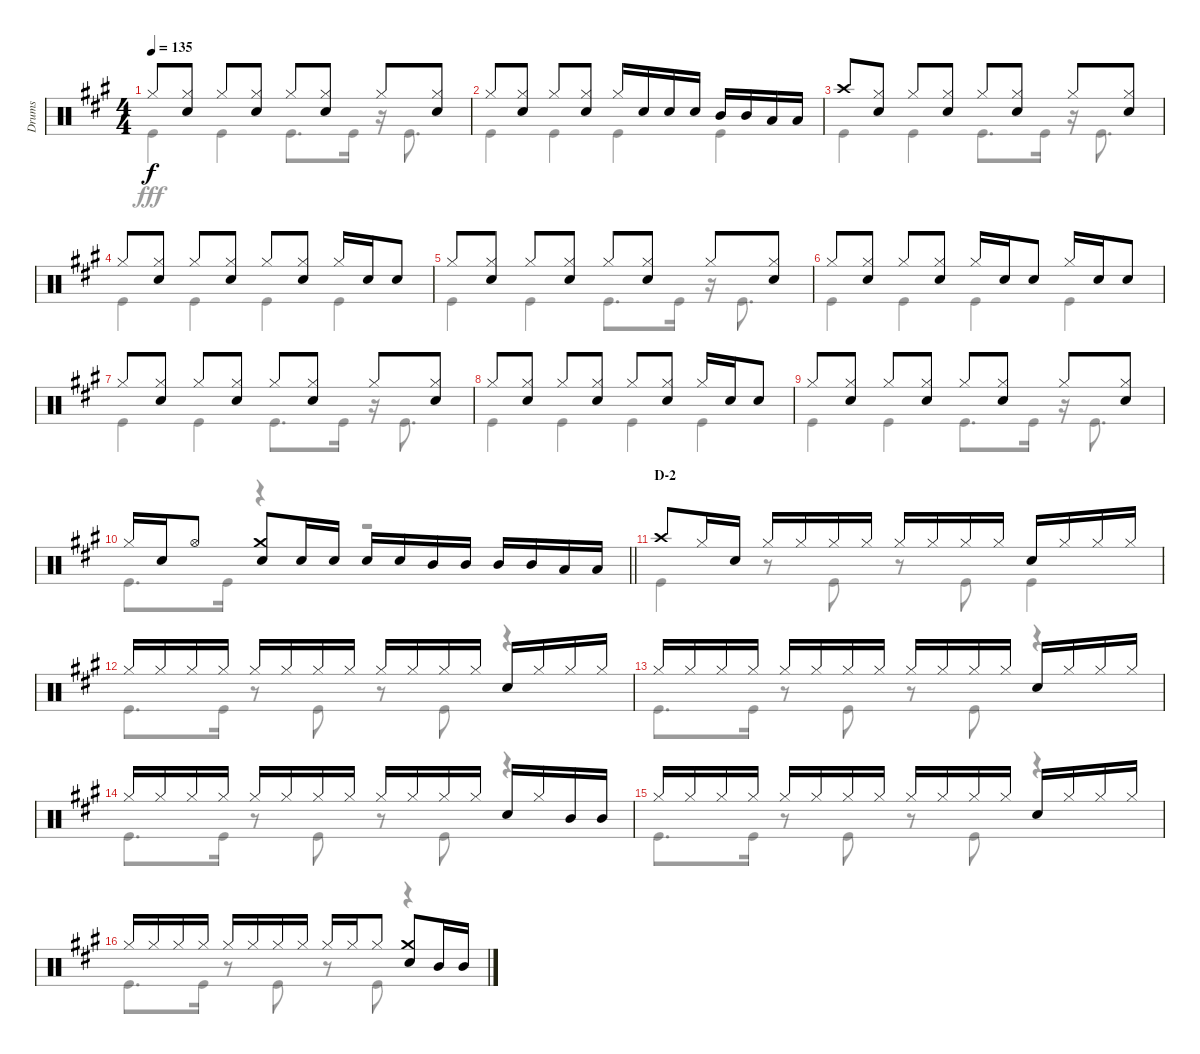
\track ("Drums" "Drums") {instrument percussion}
\staff {score}
\articulation defaults
\voice
\ts (4 4)
\tempo 135
\clef neutral
\ks a "Hi-Hat (closed)".8{dy f}
("Hi-Hat (closed)" "Snare (hit) 2").8 "Hi-Hat (closed)".8 ("Hi-Hat (closed)" "Snare (hit) 2").8 "Hi-Hat (closed)".8 ("Hi-Hat (closed)" "Snare (hit) 2").8 "Hi-Hat (closed)".8 ("Hi-Hat (closed)" "Snare (hit) 2").8 |
"Hi-Hat (closed)".8 ("Hi-Hat (closed)" "Snare (hit) 2").8 "Hi-Hat (closed)".8 ("Hi-Hat (closed)" "Snare (hit) 2").8 "Hi-Hat (closed)".16 "Snare (hit) 2".16 "Snare (hit) 2".16 "Snare (hit) 2".16 "Mid Tom (hit)".16 "Mid Tom (hit)".16 "Low Tom (hit)".16 "Low Tom (hit)".16 |
"Crash high (hit)".8 ("Hi-Hat (closed)" "Snare (hit) 2").8 "Hi-Hat (closed)".8 ("Hi-Hat (closed)" "Snare (hit) 2").8 "Hi-Hat (closed)".8 ("Hi-Hat (closed)" "Snare (hit) 2").8 "Hi-Hat (closed)".8 ("Hi-Hat (closed)" "Snare (hit) 2").8 |
"Hi-Hat (closed)".8 ("Hi-Hat (closed)" "Snare (hit) 2").8 "Hi-Hat (closed)".8 ("Hi-Hat (closed)" "Snare (hit) 2").8 "Hi-Hat (closed)".8 ("Hi-Hat (closed)" "Snare (hit) 2").8 "Hi-Hat (closed)".16 "Snare (hit) 2".16 "Snare (hit) 2".8 |
"Hi-Hat (closed)".8 ("Hi-Hat (closed)" "Snare (hit) 2").8 "Hi-Hat (closed)".8 ("Hi-Hat (closed)" "Snare (hit) 2").8 "Hi-Hat (closed)".8 ("Hi-Hat (closed)" "Snare (hit) 2").8 "Hi-Hat (closed)".8 ("Hi-Hat (closed)" "Snare (hit) 2").8 |
"Hi-Hat (closed)".8 ("Hi-Hat (closed)" "Snare (hit) 2").8 "Hi-Hat (closed)".8 ("Hi-Hat (closed)" "Snare (hit) 2").8 "Hi-Hat (closed)".16 "Snare (hit) 2".16 "Snare (hit) 2".8 "Hi-Hat (closed)".16 "Snare (hit) 2".16 "Snare (hit) 2".8 |
"Hi-Hat (closed)".8 ("Hi-Hat (closed)" "Snare (hit) 2").8 "Hi-Hat (closed)".8 ("Hi-Hat (closed)" "Snare (hit) 2").8 "Hi-Hat (closed)".8 ("Hi-Hat (closed)" "Snare (hit) 2").8 "Hi-Hat (closed)".8 ("Hi-Hat (closed)" "Snare (hit) 2").8 |
"Hi-Hat (closed)".8 ("Hi-Hat (closed)" "Snare (hit) 2").8 "Hi-Hat (closed)".8 ("Hi-Hat (closed)" "Snare (hit) 2").8 "Hi-Hat (closed)".8 ("Hi-Hat (closed)" "Snare (hit) 2").8 "Hi-Hat (closed)".16 "Snare (hit) 2".16 "Snare (hit) 2".8 |
"Hi-Hat (closed)".8 ("Hi-Hat (closed)" "Snare (hit) 2").8 "Hi-Hat (closed)".8 ("Hi-Hat (closed)" "Snare (hit) 2").8 "Hi-Hat (closed)".8 ("Hi-Hat (closed)" "Snare (hit) 2").8 "Hi-Hat (closed)".8 ("Hi-Hat (closed)" "Snare (hit) 2").8 |
\barLineRight lightlight "Hi-Hat (closed)".16 "Snare (hit) 2".16 "Hi-Hat (open)".8
("Crash medium (hit)" "Snare (hit) 2").8 "Snare (hit) 2".16 "Snare (hit) 2".16 "Snare (hit) 2".16 "Snare (hit) 2".16 "Mid Tom (hit)".16 "Mid Tom (hit)".16 "Mid Tom (hit)".16 "Mid Tom (hit)".16 "Low Tom (hit)".16 "Low Tom (hit)".16 |
\section ("" "D-2")
"Crash high (hit)".8 "Hi-Hat (closed)".16 "Snare (hit) 2".16 "Hi-Hat (closed)".16 "Hi-Hat (closed)".16 "Hi-Hat (closed)".16 "Hi-Hat (closed)".16 "Hi-Hat (closed)".16 "Hi-Hat (closed)".16 "Hi-Hat (closed)".16 "Hi-Hat (closed)".16 "Snare (hit) 2".16 "Hi-Hat (closed)".16 "Hi-Hat (closed)".16 "Hi-Hat (closed)".16 |
"Hi-Hat (closed)".16 "Hi-Hat (closed)".16 "Hi-Hat (closed)".16 "Hi-Hat (closed)".16 "Hi-Hat (closed)".16 "Hi-Hat (closed)".16 "Hi-Hat (closed)".16 "Hi-Hat (closed)".16 "Hi-Hat (closed)".16 "Hi-Hat (closed)".16 "Hi-Hat (closed)".16 "Hi-Hat (closed)".16 "Snare (hit) 2".16 "Hi-Hat (closed)".16 "Hi-Hat (closed)".16 "Hi-Hat (closed)".16 |
"Hi-Hat (closed)".16 "Hi-Hat (closed)".16 "Hi-Hat (closed)".16 "Hi-Hat (closed)".16 "Hi-Hat (closed)".16 "Hi-Hat (closed)".16 "Hi-Hat (closed)".16 "Hi-Hat (closed)".16 "Hi-Hat (closed)".16 "Hi-Hat (closed)".16 "Hi-Hat (closed)".16 "Hi-Hat (closed)".16 "Snare (hit) 2".16 "Hi-Hat (closed)".16 "Hi-Hat (closed)".16 "Hi-Hat (closed)".16 |
"Hi-Hat (closed)".16 "Hi-Hat (closed)".16 "Hi-Hat (closed)".16 "Hi-Hat (closed)".16 "Hi-Hat (closed)".16 "Hi-Hat (closed)".16 "Hi-Hat (closed)".16 "Hi-Hat (closed)".16 "Hi-Hat (closed)".16 "Hi-Hat (closed)".16 "Hi-Hat (closed)".16 "Hi-Hat (closed)".16 "Snare (hit) 2".16 "Hi-Hat (closed)".16 "Mid Tom (hit)".16 "Mid Tom (hit)".16 |
"Hi-Hat (closed)".16 "Hi-Hat (closed)".16 "Hi-Hat (closed)".16 "Hi-Hat (closed)".16 "Hi-Hat (closed)".16 "Hi-Hat (closed)".16 "Hi-Hat (closed)".16 "Hi-Hat (closed)".16 "Hi-Hat (closed)".16 "Hi-Hat (closed)".16 "Hi-Hat (closed)".16 "Hi-Hat (closed)".16 "Snare (hit) 2".16 "Hi-Hat (closed)".16 "Hi-Hat (closed)".16 "Hi-Hat (closed)".16 |
"Hi-Hat (closed)".16 "Hi-Hat (closed)".16 "Hi-Hat (closed)".16 "Hi-Hat (closed)".16 "Hi-Hat (closed)".16 "Hi-Hat (closed)".16 "Hi-Hat (closed)".16 "Hi-Hat (closed)".16 "Hi-Hat (closed)".16 "Hi-Hat (closed)".16 "Hi-Hat (closed)".8 ("Crash medium (hit)" "Snare (hit) 2").8 "Mid Tom (hit)".16 "Mid Tom (hit)".16
\voice
\clef neutral
\ottava regular
\simile none
\ks a "Kick (hit)".4{dy fff} "Kick (hit)".4 "Kick (hit)".8{d} "Kick (hit)".16
r.16 "Kick (hit)".8{d} |
"Kick (hit)".4 "Kick (hit)".4 "Kick (hit)".4 "Kick (hit)".4 |
"Kick (hit)".4 "Kick (hit)".4 "Kick (hit)".8{d} "Kick (hit)".16 r.16 "Kick (hit)".8{d} |
"Kick (hit)".4 "Kick (hit)".4 "Kick (hit)".4 "Kick (hit)".4 |
"Kick (hit)".4 "Kick (hit)".4 "Kick (hit)".8{d} "Kick (hit)".16 r.16 "Kick (hit)".8{d} |
"Kick (hit)".4 "Kick (hit)".4 "Kick (hit)".4 "Kick (hit)".4 |
"Kick (hit)".4 "Kick (hit)".4 "Kick (hit)".8{d} "Kick (hit)".16 r.16 "Kick (hit)".8{d} |
"Kick (hit)".4 "Kick (hit)".4 "Kick (hit)".4 "Kick (hit)".4 |
"Kick (hit)".4 "Kick (hit)".4 "Kick (hit)".8{d} "Kick (hit)".16 r.16 "Kick (hit)".8{d} |
\barLineRight lightlight "Kick (hit)".8{d} "Kick (hit)".16
r.4 r.2 |
"Kick (hit)".4 r.8 "Kick (hit)".8 r.8 "Kick (hit)".8 "Kick (hit)".4 |
"Kick (hit)".8{d} "Kick (hit)".16 r.8 "Kick (hit)".8 r.8 "Kick (hit)".8 r.4 |
"Kick (hit)".8{d} "Kick (hit)".16 r.8 "Kick (hit)".8 r.8 "Kick (hit)".8 r.4 |
"Kick (hit)".8{d} "Kick (hit)".16 r.8 "Kick (hit)".8 r.8 "Kick (hit)".8 r.4 |
"Kick (hit)".8{d} "Kick (hit)".16 r.8 "Kick (hit)".8 r.8 "Kick (hit)".8 r.4 |
"Kick (hit)".8{d} "Kick (hit)".16 r.8 "Kick (hit)".8 r.8 "Kick (hit)".8 r.4
